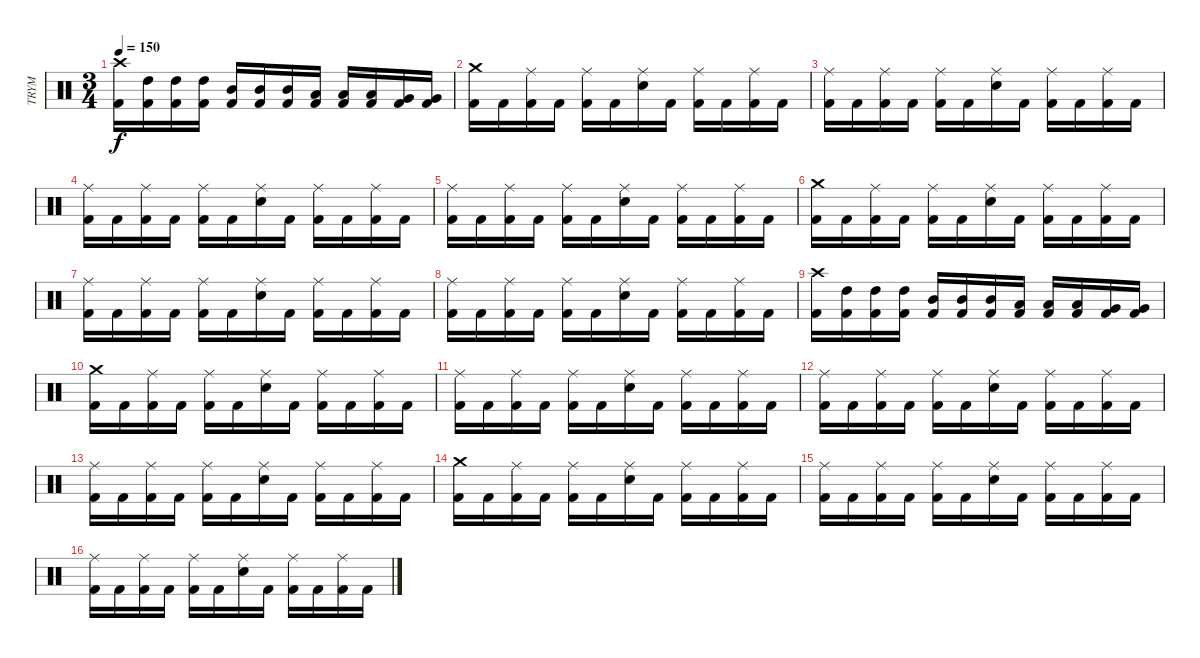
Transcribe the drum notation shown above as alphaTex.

\track ("TRYM" "TRYM") {instrument percussion}
\staff {score}
\articulation defaults
\ts (3 4)
\tempo 150
\clef neutral
\ks c
("Kick (hit) 2" "Crash high (hit)").16{dy f} ("Kick (hit) 2" "High Tom (hit)").16 ("Kick (hit) 2" "High Tom (hit)").16 ("Kick (hit) 2" "High Tom (hit)").16 ("Kick (hit) 2" "Mid Tom (hit)").16 ("Kick (hit) 2" "Mid Tom (hit)").16 ("Kick (hit) 2" "Mid Tom (hit)").16 ("Kick (hit) 2" "Low Tom (hit)").16 ("Kick (hit) 2" "Low Tom (hit)").16 ("Kick (hit) 2" "Low Tom (hit)").16 ("Kick (hit) 2" "Very Low Tom (hit)").16 ("Kick (hit) 2" "Very Low Tom (hit)").16 |
("Kick (hit) 2" "Crash medium (hit)").16 "Kick (hit) 2".16 ("Kick (hit) 2" "Ride (middle)").16 "Kick (hit) 2".16 ("Kick (hit) 2" "Ride (middle)").16 "Kick (hit) 2".16 ("Ride (middle)" "Electric Snare (hit)").16 "Kick (hit) 2".16 ("Kick (hit) 2" "Ride (middle)").16 "Kick (hit) 2".16 ("Kick (hit) 2" "Ride (middle)").16 "Kick (hit) 2".16 |
("Kick (hit) 2" "Ride (middle)").16 "Kick (hit) 2".16 ("Kick (hit) 2" "Ride (middle)").16 "Kick (hit) 2".16 ("Kick (hit) 2" "Ride (middle)").16 "Kick (hit) 2".16 ("Ride (middle)" "Electric Snare (hit)").16 "Kick (hit) 2".16 ("Kick (hit) 2" "Ride (middle)").16 "Kick (hit) 2".16 ("Kick (hit) 2" "Ride (middle)").16 "Kick (hit) 2".16 |
("Kick (hit) 2" "Ride (middle)").16 "Kick (hit) 2".16 ("Kick (hit) 2" "Ride (middle)").16 "Kick (hit) 2".16 ("Kick (hit) 2" "Ride (middle)").16 "Kick (hit) 2".16 ("Ride (middle)" "Electric Snare (hit)").16 "Kick (hit) 2".16 ("Kick (hit) 2" "Ride (middle)").16 "Kick (hit) 2".16 ("Kick (hit) 2" "Ride (middle)").16 "Kick (hit) 2".16 |
("Kick (hit) 2" "Ride (middle)").16 "Kick (hit) 2".16 ("Kick (hit) 2" "Ride (middle)").16 "Kick (hit) 2".16 ("Kick (hit) 2" "Ride (middle)").16 "Kick (hit) 2".16 ("Ride (middle)" "Electric Snare (hit)").16 "Kick (hit) 2".16 ("Kick (hit) 2" "Ride (middle)").16 "Kick (hit) 2".16 ("Kick (hit) 2" "Ride (middle)").16 "Kick (hit) 2".16 |
("Kick (hit) 2" "Crash medium (hit)").16 "Kick (hit) 2".16 ("Kick (hit) 2" "Ride (middle)").16 "Kick (hit) 2".16 ("Kick (hit) 2" "Ride (middle)").16 "Kick (hit) 2".16 ("Ride (middle)" "Electric Snare (hit)").16 "Kick (hit) 2".16 ("Kick (hit) 2" "Ride (middle)").16 "Kick (hit) 2".16 ("Kick (hit) 2" "Ride (middle)").16 "Kick (hit) 2".16 |
("Kick (hit) 2" "Ride (middle)").16 "Kick (hit) 2".16 ("Kick (hit) 2" "Ride (middle)").16 "Kick (hit) 2".16 ("Kick (hit) 2" "Ride (middle)").16 "Kick (hit) 2".16 ("Ride (middle)" "Electric Snare (hit)").16 "Kick (hit) 2".16 ("Kick (hit) 2" "Ride (middle)").16 "Kick (hit) 2".16 ("Kick (hit) 2" "Ride (middle)").16 "Kick (hit) 2".16 |
("Kick (hit) 2" "Ride (middle)").16 "Kick (hit) 2".16 ("Kick (hit) 2" "Ride (middle)").16 "Kick (hit) 2".16 ("Kick (hit) 2" "Ride (middle)").16 "Kick (hit) 2".16 ("Ride (middle)" "Electric Snare (hit)").16 "Kick (hit) 2".16 ("Kick (hit) 2" "Ride (middle)").16 "Kick (hit) 2".16 ("Kick (hit) 2" "Ride (middle)").16 "Kick (hit) 2".16 |
("Kick (hit) 2" "Crash high (hit)").16 ("Kick (hit) 2" "High Tom (hit)").16 ("Kick (hit) 2" "High Tom (hit)").16 ("Kick (hit) 2" "High Tom (hit)").16 ("Kick (hit) 2" "Mid Tom (hit)").16 ("Kick (hit) 2" "Mid Tom (hit)").16 ("Kick (hit) 2" "Mid Tom (hit)").16 ("Kick (hit) 2" "Low Tom (hit)").16 ("Kick (hit) 2" "Low Tom (hit)").16 ("Kick (hit) 2" "Low Tom (hit)").16 ("Kick (hit) 2" "Very Low Tom (hit)").16 ("Kick (hit) 2" "Very Low Tom (hit)").16 |
("Kick (hit) 2" "Crash medium (hit)").16 "Kick (hit) 2".16 ("Kick (hit) 2" "Ride (middle)").16 "Kick (hit) 2".16 ("Kick (hit) 2" "Ride (middle)").16 "Kick (hit) 2".16 ("Ride (middle)" "Electric Snare (hit)").16 "Kick (hit) 2".16 ("Kick (hit) 2" "Ride (middle)").16 "Kick (hit) 2".16 ("Kick (hit) 2" "Ride (middle)").16 "Kick (hit) 2".16 |
("Kick (hit) 2" "Ride (middle)").16 "Kick (hit) 2".16 ("Kick (hit) 2" "Ride (middle)").16 "Kick (hit) 2".16 ("Kick (hit) 2" "Ride (middle)").16 "Kick (hit) 2".16 ("Ride (middle)" "Electric Snare (hit)").16 "Kick (hit) 2".16 ("Kick (hit) 2" "Ride (middle)").16 "Kick (hit) 2".16 ("Kick (hit) 2" "Ride (middle)").16 "Kick (hit) 2".16 |
("Kick (hit) 2" "Ride (middle)").16 "Kick (hit) 2".16 ("Kick (hit) 2" "Ride (middle)").16 "Kick (hit) 2".16 ("Kick (hit) 2" "Ride (middle)").16 "Kick (hit) 2".16 ("Ride (middle)" "Electric Snare (hit)").16 "Kick (hit) 2".16 ("Kick (hit) 2" "Ride (middle)").16 "Kick (hit) 2".16 ("Kick (hit) 2" "Ride (middle)").16 "Kick (hit) 2".16 |
("Kick (hit) 2" "Ride (middle)").16 "Kick (hit) 2".16 ("Kick (hit) 2" "Ride (middle)").16 "Kick (hit) 2".16 ("Kick (hit) 2" "Ride (middle)").16 "Kick (hit) 2".16 ("Ride (middle)" "Electric Snare (hit)").16 "Kick (hit) 2".16 ("Kick (hit) 2" "Ride (middle)").16 "Kick (hit) 2".16 ("Kick (hit) 2" "Ride (middle)").16 "Kick (hit) 2".16 |
("Kick (hit) 2" "Crash medium (hit)").16 "Kick (hit) 2".16 ("Kick (hit) 2" "Ride (middle)").16 "Kick (hit) 2".16 ("Kick (hit) 2" "Ride (middle)").16 "Kick (hit) 2".16 ("Ride (middle)" "Electric Snare (hit)").16 "Kick (hit) 2".16 ("Kick (hit) 2" "Ride (middle)").16 "Kick (hit) 2".16 ("Kick (hit) 2" "Ride (middle)").16 "Kick (hit) 2".16 |
("Kick (hit) 2" "Ride (middle)").16 "Kick (hit) 2".16 ("Kick (hit) 2" "Ride (middle)").16 "Kick (hit) 2".16 ("Kick (hit) 2" "Ride (middle)").16 "Kick (hit) 2".16 ("Ride (middle)" "Electric Snare (hit)").16 "Kick (hit) 2".16 ("Kick (hit) 2" "Ride (middle)").16 "Kick (hit) 2".16 ("Kick (hit) 2" "Ride (middle)").16 "Kick (hit) 2".16 |
("Kick (hit) 2" "Ride (middle)").16 "Kick (hit) 2".16 ("Kick (hit) 2" "Ride (middle)").16 "Kick (hit) 2".16 ("Kick (hit) 2" "Ride (middle)").16 "Kick (hit) 2".16 ("Ride (middle)" "Electric Snare (hit)").16 "Kick (hit) 2".16 ("Kick (hit) 2" "Ride (middle)").16 "Kick (hit) 2".16 ("Kick (hit) 2" "Ride (middle)").16 "Kick (hit) 2".16
